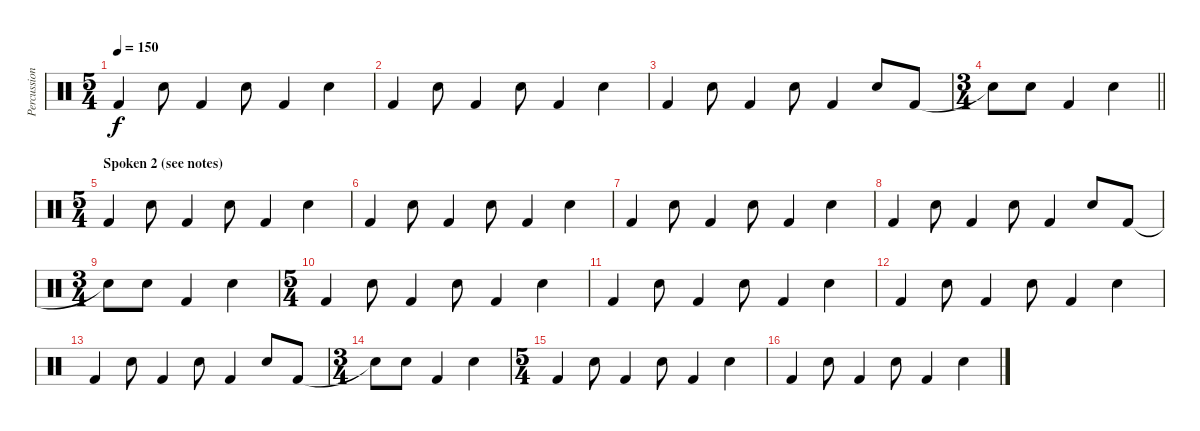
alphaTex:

\track ("Percussion" "Percussion") {instrument percussion}
\staff {score}
\articulation defaults
\ts (5 4)
\tempo 150
\clef neutral
\ks c "Kick (hit) 2".4{dy f} "Snare (hit) 2".8 "Kick (hit) 2".4 "Snare (hit) 2".8 "Kick (hit) 2".4 "Snare (hit) 2".4
|
"Kick (hit) 2".4 "Snare (hit) 2".8 "Kick (hit) 2".4 "Snare (hit) 2".8 "Kick (hit) 2".4 "Snare (hit) 2".4 |
"Kick (hit) 2".4 "Snare (hit) 2".8 "Kick (hit) 2".4 "Snare (hit) 2".8 "Kick (hit) 2".4 "Snare (hit) 2".8 "Kick (hit) 2".8 |
\ts (3 4)
\barLineRight lightlight "Snare (hit)"{t}.8 "Snare (hit) 2".8 "Kick (hit) 2".4 "Snare (hit) 2".4
|
\ts (5 4)
\section ("" "Spoken 2 (see notes)")
"Kick (hit) 2".4 "Snare (hit) 2".8 "Kick (hit) 2".4 "Snare (hit) 2".8 "Kick (hit) 2".4 "Snare (hit) 2".4 |
"Kick (hit) 2".4 "Snare (hit) 2".8 "Kick (hit) 2".4 "Snare (hit) 2".8 "Kick (hit) 2".4 "Snare (hit) 2".4 |
"Kick (hit) 2".4 "Snare (hit) 2".8 "Kick (hit) 2".4 "Snare (hit) 2".8 "Kick (hit) 2".4 "Snare (hit) 2".4 |
"Kick (hit) 2".4 "Snare (hit) 2".8 "Kick (hit) 2".4 "Snare (hit) 2".8 "Kick (hit) 2".4 "Snare (hit) 2".8 "Kick (hit) 2".8 |
\ts (3 4)
"Snare (hit)"{t}.8 "Snare (hit) 2".8 "Kick (hit) 2".4 "Snare (hit) 2".4 |
\ts (5 4)
"Kick (hit) 2".4 "Snare (hit) 2".8 "Kick (hit) 2".4 "Snare (hit) 2".8 "Kick (hit) 2".4 "Snare (hit) 2".4 |
"Kick (hit) 2".4 "Snare (hit) 2".8 "Kick (hit) 2".4 "Snare (hit) 2".8 "Kick (hit) 2".4 "Snare (hit) 2".4 |
"Kick (hit) 2".4 "Snare (hit) 2".8 "Kick (hit) 2".4 "Snare (hit) 2".8 "Kick (hit) 2".4 "Snare (hit) 2".4 |
"Kick (hit) 2".4 "Snare (hit) 2".8 "Kick (hit) 2".4 "Snare (hit) 2".8 "Kick (hit) 2".4 "Snare (hit) 2".8 "Kick (hit) 2".8 |
\ts (3 4)
"Snare (hit)"{t}.8 "Snare (hit) 2".8 "Kick (hit) 2".4 "Snare (hit) 2".4 |
\ts (5 4)
"Kick (hit) 2".4 "Snare (hit) 2".8 "Kick (hit) 2".4 "Snare (hit) 2".8 "Kick (hit) 2".4 "Snare (hit) 2".4 |
"Kick (hit) 2".4 "Snare (hit) 2".8 "Kick (hit) 2".4 "Snare (hit) 2".8 "Kick (hit) 2".4 "Snare (hit) 2".4
